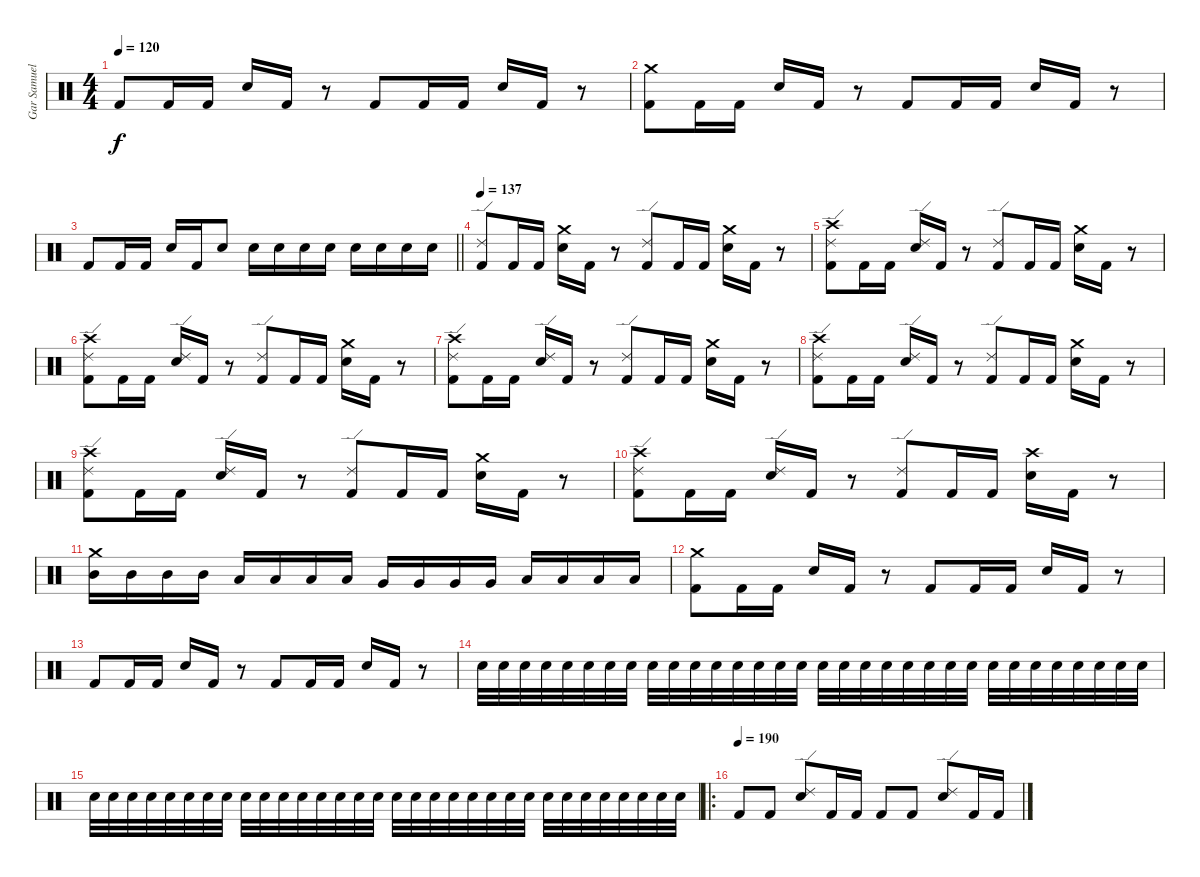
\track ("Gar Samuelson" "Gar Samuel") {instrument percussion}
\staff {score}
\articulation defaults
\ts (4 4)
\tempo 120
\clef neutral
\ks c "Kick (hit) 2".8{dy f} "Kick (hit) 2".16 "Kick (hit) 2".16 "Snare (hit) 2".16 "Kick (hit) 2".16
r.8 "Kick (hit) 2".8 "Kick (hit) 2".16 "Kick (hit) 2".16 "Snare (hit) 2".16 "Kick (hit) 2".16 r.8 |
("Crash medium (hit)" "Kick (hit) 2").8 "Kick (hit) 2".16 "Kick (hit) 2".16 "Snare (hit) 2".16 "Kick (hit) 2".16 r.8 "Kick (hit) 2".8 "Kick (hit) 2".16 "Kick (hit) 2".16 "Snare (hit) 2".16 "Kick (hit) 2".16 r.8 |
\barLineRight lightlight "Kick (hit) 2".8 "Kick (hit) 2".16 "Kick (hit) 2".16 "Snare (hit) 2".16 "Kick (hit) 2".16 "Snare (hit) 2".8 "Snare (hit) 2".16 "Snare (hit) 2".16 "Snare (hit) 2".16 "Snare (hit) 2".16 "Snare (hit) 2".16 "Snare (hit) 2".16 "Snare (hit) 2".16 "Snare (hit) 2".16
|
\tempo 137
("Ride (edge) 2" "Kick (hit) 2").8 "Kick (hit) 2".16 "Kick (hit) 2".16 ("Crash medium (hit)" "Snare (hit) 2").16 "Kick (hit) 2".16 r.8 ("Ride (edge) 2" "Kick (hit) 2").8 "Kick (hit) 2".16 "Kick (hit) 2".16 ("Crash medium (hit)" "Snare (hit) 2").16 "Kick (hit) 2".16 r.8 |
("Crash high (hit)" "Ride (edge) 2" "Kick (hit) 2").8 "Kick (hit) 2".16 "Kick (hit) 2".16 ("Ride (edge) 2" "Snare (hit) 2").16 "Kick (hit) 2".16 r.8 ("Ride (edge) 2" "Kick (hit) 2").8 "Kick (hit) 2".16 "Kick (hit) 2".16 ("Crash medium (hit)" "Snare (hit) 2").16 "Kick (hit) 2".16 r.8 |
("Crash high (hit)" "Ride (edge) 2" "Kick (hit) 2").8 "Kick (hit) 2".16 "Kick (hit) 2".16 ("Ride (edge) 2" "Snare (hit) 2").16 "Kick (hit) 2".16 r.8 ("Ride (edge) 2" "Kick (hit) 2").8 "Kick (hit) 2".16 "Kick (hit) 2".16 ("Crash medium (hit)" "Snare (hit) 2").16 "Kick (hit) 2".16 r.8 |
("Crash high (hit)" "Ride (edge) 2" "Kick (hit) 2").8 "Kick (hit) 2".16 "Kick (hit) 2".16 ("Ride (edge) 2" "Snare (hit) 2").16 "Kick (hit) 2".16 r.8 ("Ride (edge) 2" "Kick (hit) 2").8 "Kick (hit) 2".16 "Kick (hit) 2".16 ("Crash medium (hit)" "Snare (hit) 2").16 "Kick (hit) 2".16 r.8 |
("Crash high (hit)" "Ride (edge) 2" "Kick (hit) 2").8 "Kick (hit) 2".16 "Kick (hit) 2".16 ("Ride (edge) 2" "Snare (hit) 2").16 "Kick (hit) 2".16 r.8 ("Ride (edge) 2" "Kick (hit) 2").8 "Kick (hit) 2".16 "Kick (hit) 2".16 ("Crash medium (hit)" "Snare (hit) 2").16 "Kick (hit) 2".16 r.8 |
("Crash high (hit)" "Ride (edge) 2" "Kick (hit) 2").8 "Kick (hit) 2".16 "Kick (hit) 2".16 ("Ride (edge) 2" "Snare (hit) 2").16 "Kick (hit) 2".16 r.8 ("Ride (edge) 2" "Kick (hit) 2").8 "Kick (hit) 2".16 "Kick (hit) 2".16 ("Crash medium (hit)" "Snare (hit) 2").16 "Kick (hit) 2".16 r.8 |
("Crash high (hit)" "Ride (edge) 2" "Kick (hit) 2").8 "Kick (hit) 2".16 "Kick (hit) 2".16 ("Ride (edge) 2" "Snare (hit) 2").16 "Kick (hit) 2".16 r.8 ("Ride (edge) 2" "Kick (hit) 2").8 "Kick (hit) 2".16 "Kick (hit) 2".16 ("Crash high (hit)" "Snare (hit) 2").16 "Kick (hit) 2".16 r.8 |
("Crash medium (hit)" "Mid Tom (hit)").16 "Mid Tom (hit)".16 "Mid Tom (hit)".16 "Mid Tom (hit)".16 "Low Tom (hit)".16 "Low Tom (hit)".16 "Low Tom (hit)".16 "Low Tom (hit)".16 "Very Low Tom (hit)".16 "Very Low Tom (hit)".16 "Very Low Tom (hit)".16 "Very Low Tom (hit)".16 "Low Floor Tom (hit)".16 "Low Floor Tom (hit)".16 "Low Floor Tom (hit)".16 "Low Floor Tom (hit)".16 |
("Crash medium (hit)" "Kick (hit) 2").8 "Kick (hit) 2".16 "Kick (hit) 2".16 "Snare (hit) 2".16 "Kick (hit) 2".16 r.8 "Kick (hit) 2".8 "Kick (hit) 2".16 "Kick (hit) 2".16 "Snare (hit) 2".16 "Kick (hit) 2".16 r.8 |
"Kick (hit) 2".8 "Kick (hit) 2".16 "Kick (hit) 2".16 "Snare (hit) 2".16 "Kick (hit) 2".16 r.8 "Kick (hit) 2".8 "Kick (hit) 2".16 "Kick (hit) 2".16 "Snare (hit) 2".16 "Kick (hit) 2".16 r.8 |
"Snare (hit) 2".32 "Snare (hit) 2".32 "Snare (hit) 2".32 "Snare (hit) 2".32 "Snare (hit) 2".32 "Snare (hit) 2".32 "Snare (hit) 2".32 "Snare (hit) 2".32 "Snare (hit) 2".32 "Snare (hit) 2".32 "Snare (hit) 2".32 "Snare (hit) 2".32 "Snare (hit) 2".32 "Snare (hit) 2".32 "Snare (hit) 2".32 "Snare (hit) 2".32 "Snare (hit) 2".32 "Snare (hit) 2".32 "Snare (hit) 2".32 "Snare (hit) 2".32 "Snare (hit) 2".32 "Snare (hit) 2".32 "Snare (hit) 2".32 "Snare (hit) 2".32 "Snare (hit) 2".32 "Snare (hit) 2".32 "Snare (hit) 2".32 "Snare (hit) 2".32 "Snare (hit) 2".32 "Snare (hit) 2".32 "Snare (hit) 2".32 "Snare (hit) 2".32 |
"Snare (hit) 2".32 "Snare (hit) 2".32 "Snare (hit) 2".32 "Snare (hit) 2".32 "Snare (hit) 2".32 "Snare (hit) 2".32 "Snare (hit) 2".32 "Snare (hit) 2".32 "Snare (hit) 2".32 "Snare (hit) 2".32 "Snare (hit) 2".32 "Snare (hit) 2".32 "Snare (hit) 2".32 "Snare (hit) 2".32 "Snare (hit) 2".32 "Snare (hit) 2".32 "Snare (hit) 2".32 "Snare (hit) 2".32 "Snare (hit) 2".32 "Snare (hit) 2".32 "Snare (hit) 2".32 "Snare (hit) 2".32 "Snare (hit) 2".32 "Snare (hit) 2".32 "Snare (hit) 2".32 "Snare (hit) 2".32 "Snare (hit) 2".32 "Snare (hit) 2".32 "Snare (hit) 2".32 "Snare (hit) 2".32 "Snare (hit) 2".32 "Snare (hit) 2".32 |
\ro
\tempo (190)
"Kick (hit) 2".8 "Kick (hit) 2".8 ("Ride (edge) 2" "Snare (hit) 2").8 "Kick (hit) 2".16 "Kick (hit) 2".16 "Kick (hit) 2".8 "Kick (hit) 2".8 ("Ride (edge) 2" "Snare (hit) 2").8 "Kick (hit) 2".16 "Kick (hit) 2".16
